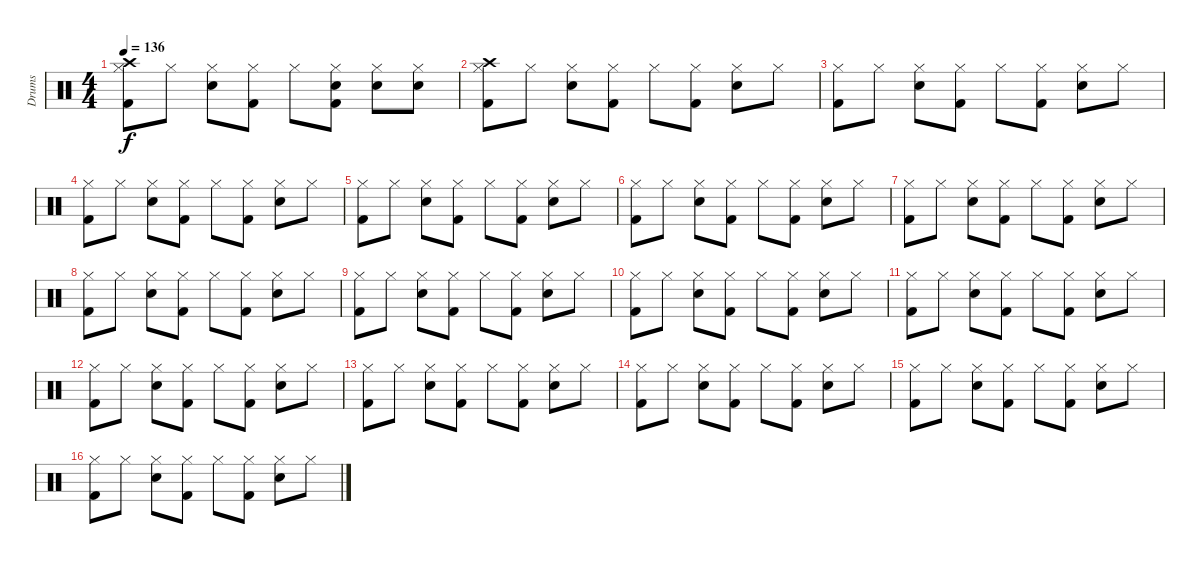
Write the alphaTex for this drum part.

\track ("Drums" "Drums") {instrument percussion}
\staff {score}
\articulation defaults
\ts (4 4)
\tempo 136
\clef neutral
\ks c
("Crash high (hit)" "Hi-Hat (closed)" "Kick (hit) 2").8{dy f} "Hi-Hat (closed)".8 ("Hi-Hat (closed)" "Snare (hit) 2").8 ("Hi-Hat (closed)" "Kick (hit) 2").8 "Hi-Hat (closed)".8 ("Hi-Hat (closed)" "Snare (hit) 2" "Kick (hit) 2").8 ("Hi-Hat (closed)" "Snare (hit) 2").8 ("Hi-Hat (closed)" "Snare (hit) 2").8 |
("Crash high (hit)" "Hi-Hat (closed)" "Kick (hit) 2").8 "Hi-Hat (closed)".8 ("Hi-Hat (closed)" "Snare (hit) 2").8 ("Hi-Hat (closed)" "Kick (hit) 2").8 "Hi-Hat (closed)".8 ("Hi-Hat (closed)" "Kick (hit) 2").8 ("Hi-Hat (closed)" "Snare (hit) 2").8 "Hi-Hat (closed)".8 |
("Hi-Hat (closed)" "Kick (hit) 2").8 "Hi-Hat (closed)".8 ("Hi-Hat (closed)" "Snare (hit) 2").8 ("Hi-Hat (closed)" "Kick (hit) 2").8 "Hi-Hat (closed)".8 ("Hi-Hat (closed)" "Kick (hit) 2").8 ("Hi-Hat (closed)" "Snare (hit) 2").8 "Hi-Hat (closed)".8 |
("Hi-Hat (closed)" "Kick (hit) 2").8 "Hi-Hat (closed)".8 ("Hi-Hat (closed)" "Snare (hit) 2").8 ("Hi-Hat (closed)" "Kick (hit) 2").8 "Hi-Hat (closed)".8 ("Hi-Hat (closed)" "Kick (hit) 2").8 ("Hi-Hat (closed)" "Snare (hit) 2").8 "Hi-Hat (closed)".8 |
("Hi-Hat (closed)" "Kick (hit) 2").8 "Hi-Hat (closed)".8 ("Hi-Hat (closed)" "Snare (hit) 2").8 ("Hi-Hat (closed)" "Kick (hit) 2").8 "Hi-Hat (closed)".8 ("Hi-Hat (closed)" "Kick (hit) 2").8 ("Hi-Hat (closed)" "Snare (hit) 2").8 "Hi-Hat (closed)".8 |
("Hi-Hat (closed)" "Kick (hit) 2").8 "Hi-Hat (closed)".8 ("Hi-Hat (closed)" "Snare (hit) 2").8 ("Hi-Hat (closed)" "Kick (hit) 2").8 "Hi-Hat (closed)".8 ("Hi-Hat (closed)" "Kick (hit) 2").8 ("Hi-Hat (closed)" "Snare (hit) 2").8 "Hi-Hat (closed)".8 |
("Hi-Hat (closed)" "Kick (hit) 2").8 "Hi-Hat (closed)".8 ("Hi-Hat (closed)" "Snare (hit) 2").8 ("Hi-Hat (closed)" "Kick (hit) 2").8 "Hi-Hat (closed)".8 ("Hi-Hat (closed)" "Kick (hit) 2").8 ("Hi-Hat (closed)" "Snare (hit) 2").8 "Hi-Hat (closed)".8 |
("Hi-Hat (closed)" "Kick (hit) 2").8 "Hi-Hat (closed)".8 ("Hi-Hat (closed)" "Snare (hit) 2").8 ("Hi-Hat (closed)" "Kick (hit) 2").8 "Hi-Hat (closed)".8 ("Hi-Hat (closed)" "Kick (hit) 2").8 ("Hi-Hat (closed)" "Snare (hit) 2").8 "Hi-Hat (closed)".8 |
("Hi-Hat (closed)" "Kick (hit) 2").8 "Hi-Hat (closed)".8 ("Hi-Hat (closed)" "Snare (hit) 2").8 ("Hi-Hat (closed)" "Kick (hit) 2").8 "Hi-Hat (closed)".8 ("Hi-Hat (closed)" "Kick (hit) 2").8 ("Hi-Hat (closed)" "Snare (hit) 2").8 "Hi-Hat (closed)".8 |
("Hi-Hat (closed)" "Kick (hit) 2").8 "Hi-Hat (closed)".8 ("Hi-Hat (closed)" "Snare (hit) 2").8 ("Hi-Hat (closed)" "Kick (hit) 2").8 "Hi-Hat (closed)".8 ("Hi-Hat (closed)" "Kick (hit) 2").8 ("Hi-Hat (closed)" "Snare (hit) 2").8 "Hi-Hat (closed)".8 |
("Hi-Hat (closed)" "Kick (hit) 2").8 "Hi-Hat (closed)".8 ("Hi-Hat (closed)" "Snare (hit) 2").8 ("Hi-Hat (closed)" "Kick (hit) 2").8 "Hi-Hat (closed)".8 ("Hi-Hat (closed)" "Kick (hit) 2").8 ("Hi-Hat (closed)" "Snare (hit) 2").8 "Hi-Hat (closed)".8 |
("Hi-Hat (closed)" "Kick (hit) 2").8 "Hi-Hat (closed)".8 ("Hi-Hat (closed)" "Snare (hit) 2").8 ("Hi-Hat (closed)" "Kick (hit) 2").8 "Hi-Hat (closed)".8 ("Hi-Hat (closed)" "Kick (hit) 2").8 ("Hi-Hat (closed)" "Snare (hit) 2").8 "Hi-Hat (closed)".8 |
("Hi-Hat (closed)" "Kick (hit) 2").8 "Hi-Hat (closed)".8 ("Hi-Hat (closed)" "Snare (hit) 2").8 ("Hi-Hat (closed)" "Kick (hit) 2").8 "Hi-Hat (closed)".8 ("Hi-Hat (closed)" "Kick (hit) 2").8 ("Hi-Hat (closed)" "Snare (hit) 2").8 "Hi-Hat (closed)".8 |
("Hi-Hat (closed)" "Kick (hit) 2").8 "Hi-Hat (closed)".8 ("Hi-Hat (closed)" "Snare (hit) 2").8 ("Hi-Hat (closed)" "Kick (hit) 2").8 "Hi-Hat (closed)".8 ("Hi-Hat (closed)" "Kick (hit) 2").8 ("Hi-Hat (closed)" "Snare (hit) 2").8 "Hi-Hat (closed)".8 |
("Hi-Hat (closed)" "Kick (hit) 2").8 "Hi-Hat (closed)".8 ("Hi-Hat (closed)" "Snare (hit) 2").8 ("Hi-Hat (closed)" "Kick (hit) 2").8 "Hi-Hat (closed)".8 ("Hi-Hat (closed)" "Kick (hit) 2").8 ("Hi-Hat (closed)" "Snare (hit) 2").8 "Hi-Hat (closed)".8 |
("Hi-Hat (closed)" "Kick (hit) 2").8 "Hi-Hat (closed)".8 ("Hi-Hat (closed)" "Snare (hit) 2").8 ("Hi-Hat (closed)" "Kick (hit) 2").8 "Hi-Hat (closed)".8 ("Hi-Hat (closed)" "Kick (hit) 2").8 ("Hi-Hat (closed)" "Snare (hit) 2").8 "Hi-Hat (closed)".8
